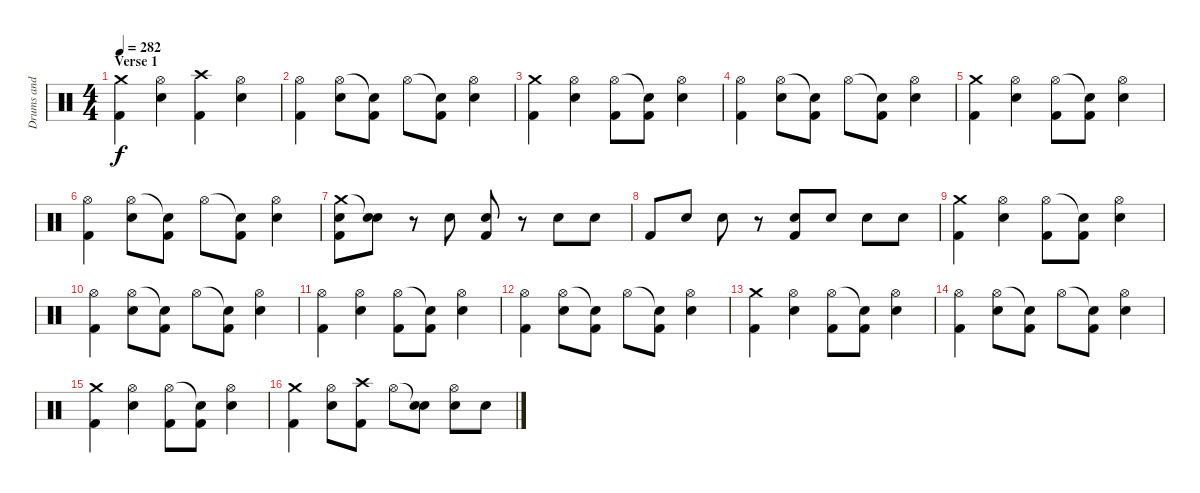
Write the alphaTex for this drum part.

\track ("Drums and Percussion" "Drums and ") {instrument percussion}
\staff {score}
\articulation defaults
\ts (4 4)
\section ("" "Verse 1")
\tempo 282
\clef neutral
\ks c
("Crash medium (hit)" "Kick (hit) 2").4{dy f} ("Hi-Hat (open)" "Snare (hit) 2").4 ("Crash high (hit)" "Kick (hit) 2").4 ("Hi-Hat (open)" "Snare (hit) 2").4 |
("Hi-Hat (open)" "Kick (hit) 2").4 ("Hi-Hat (open)" "Snare (hit) 2").8 ("Snare (hit)"{t} "Kick (hit) 2").8 "Hi-Hat (open)".8 ("Snare (hit)"{t} "Kick (hit) 2").8 ("Hi-Hat (open)" "Snare (hit) 2").4 |
("Crash medium (hit)" "Kick (hit) 2").4 ("Hi-Hat (open)" "Snare (hit) 2").4 ("Hi-Hat (open)" "Kick (hit) 2").8 ("Snare (hit)"{t} "Kick (hit) 2").8 ("Hi-Hat (open)" "Snare (hit) 2").4 |
("Hi-Hat (open)" "Kick (hit) 2").4 ("Hi-Hat (open)" "Snare (hit) 2").8 ("Snare (hit)"{t} "Kick (hit) 2").8 "Hi-Hat (open)".8 ("Snare (hit)"{t} "Kick (hit) 2").8 ("Hi-Hat (open)" "Snare (hit) 2").4 |
("Crash medium (hit)" "Kick (hit) 2").4 ("Hi-Hat (open)" "Snare (hit) 2").4 ("Hi-Hat (open)" "Kick (hit) 2").8 ("Snare (hit)"{t} "Kick (hit) 2").8 ("Hi-Hat (open)" "Snare (hit) 2").4 |
("Hi-Hat (open)" "Kick (hit) 2").4 ("Hi-Hat (open)" "Snare (hit) 2").8 ("Snare (hit)"{t} "Kick (hit) 2").8 "Hi-Hat (open)".8 ("Snare (hit)"{t} "Kick (hit) 2").8 ("Hi-Hat (open)" "Snare (hit) 2").4 |
("Crash medium (hit)" "Snare (hit) 2" "Kick (hit) 2").8 ("Snare (hit)"{t} "Snare (hit) 2").8 r.8 "Snare (hit) 2".8 ("Snare (hit) 2" "Kick (hit) 2").8 r.8 "Snare (hit) 2".8 "Snare (hit) 2".8 |
"Kick (hit) 2".8 "Snare (hit) 2".8 "Snare (hit) 2".8 r.8 ("Snare (hit) 2" "Kick (hit) 2").8 "Snare (hit) 2".8 "Snare (hit) 2".8 "Snare (hit) 2".8 |
("Crash medium (hit)" "Kick (hit) 2").4 ("Hi-Hat (open)" "Snare (hit) 2").4 ("Hi-Hat (open)" "Kick (hit) 2").8 ("Snare (hit)"{t} "Kick (hit) 2").8 ("Hi-Hat (open)" "Snare (hit) 2").4 |
("Hi-Hat (open)" "Kick (hit) 2").4 ("Hi-Hat (open)" "Snare (hit) 2").8 ("Snare (hit)"{t} "Kick (hit) 2").8 "Hi-Hat (open)".8 ("Snare (hit)"{t} "Kick (hit) 2").8 ("Hi-Hat (open)" "Snare (hit) 2").4 |
("Hi-Hat (open)" "Kick (hit) 2").4 ("Hi-Hat (open)" "Snare (hit) 2").4 ("Hi-Hat (open)" "Kick (hit) 2").8 ("Snare (hit)"{t} "Kick (hit) 2").8 ("Hi-Hat (open)" "Snare (hit) 2").4 |
("Hi-Hat (open)" "Kick (hit) 2").4 ("Hi-Hat (open)" "Snare (hit) 2").8 ("Snare (hit)"{t} "Kick (hit) 2").8 "Hi-Hat (open)".8 ("Snare (hit)"{t} "Kick (hit) 2").8 ("Hi-Hat (open)" "Snare (hit) 2").4 |
("Crash medium (hit)" "Kick (hit) 2").4 ("Hi-Hat (open)" "Snare (hit) 2").4 ("Hi-Hat (open)" "Kick (hit) 2").8 ("Snare (hit)"{t} "Kick (hit) 2").8 ("Hi-Hat (open)" "Snare (hit) 2").4 |
("Hi-Hat (open)" "Kick (hit) 2").4 ("Hi-Hat (open)" "Snare (hit) 2").8 ("Snare (hit)"{t} "Kick (hit) 2").8 "Hi-Hat (open)".8 ("Snare (hit)"{t} "Kick (hit) 2").8 ("Hi-Hat (open)" "Snare (hit) 2").4 |
("Crash medium (hit)" "Kick (hit) 2").4 ("Hi-Hat (open)" "Snare (hit) 2").4 ("Hi-Hat (open)" "Kick (hit) 2").8 ("Snare (hit)"{t} "Kick (hit) 2").8 ("Hi-Hat (open)" "Snare (hit) 2").4 |
("Crash medium (hit)" "Kick (hit) 2").4 ("Hi-Hat (open)" "Snare (hit) 2").8 ("Crash high (hit)" "Kick (hit) 2").8 "Hi-Hat (open)".8 ("Snare (hit)"{t} "Snare (hit) 2").8 ("Hi-Hat (open)" "Snare (hit) 2").8 "Snare (hit) 2".8
